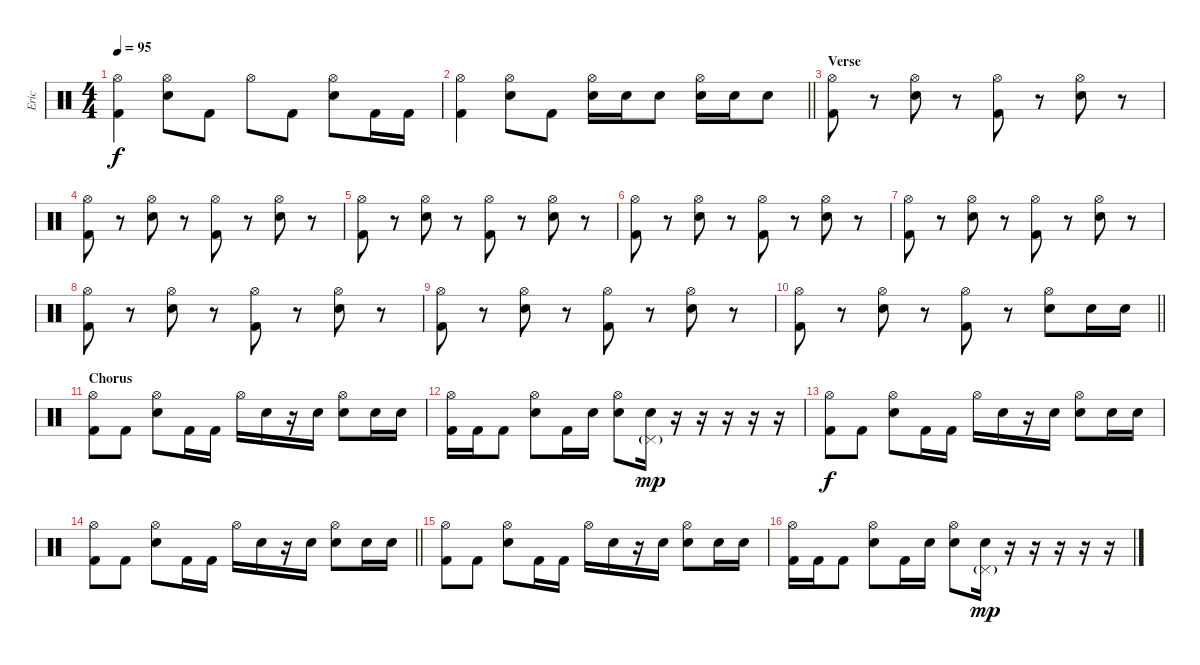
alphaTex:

\track ("Eric" "Eric") {instrument percussion}
\staff {score}
\articulation defaults
\ts (4 4)
\tempo 95
\clef neutral
\ks c
("Hi-Hat (open)" "Kick (hit) 2").4{dy f} ("Hi-Hat (open)" "Electric Snare (hit)").8 "Kick (hit) 2".8 "Hi-Hat (open)".8 "Kick (hit) 2".8 ("Hi-Hat (open)" "Electric Snare (hit)").8 "Kick (hit) 2".16 "Kick (hit) 2".16 |
\barLineRight lightlight
("Hi-Hat (open)" "Kick (hit) 2").4 ("Hi-Hat (open)" "Electric Snare (hit)").8 "Kick (hit) 2".8 ("Hi-Hat (open)" "Electric Snare (hit)").16 "Electric Snare (hit)".16 "Electric Snare (hit)".8 ("Hi-Hat (open)" "Electric Snare (hit)").16 "Electric Snare (hit)".16 "Electric Snare (hit)".8 |
\section ("" "Verse")
("Hi-Hat (open)" "Kick (hit) 2").8 r.8 ("Hi-Hat (open)" "Electric Snare (hit)").8 r.8 ("Hi-Hat (open)" "Kick (hit) 2").8 r.8 ("Hi-Hat (open)" "Electric Snare (hit)").8 r.8 |
("Hi-Hat (open)" "Kick (hit) 2").8 r.8 ("Hi-Hat (open)" "Electric Snare (hit)").8 r.8 ("Hi-Hat (open)" "Kick (hit) 2").8 r.8 ("Hi-Hat (open)" "Electric Snare (hit)").8 r.8 |
("Hi-Hat (open)" "Kick (hit) 2").8 r.8 ("Hi-Hat (open)" "Electric Snare (hit)").8 r.8 ("Hi-Hat (open)" "Kick (hit) 2").8 r.8 ("Hi-Hat (open)" "Electric Snare (hit)").8 r.8 |
("Hi-Hat (open)" "Kick (hit) 2").8 r.8 ("Hi-Hat (open)" "Electric Snare (hit)").8 r.8 ("Hi-Hat (open)" "Kick (hit) 2").8 r.8 ("Hi-Hat (open)" "Electric Snare (hit)").8 r.8 |
("Hi-Hat (open)" "Kick (hit) 2").8 r.8 ("Hi-Hat (open)" "Electric Snare (hit)").8 r.8 ("Hi-Hat (open)" "Kick (hit) 2").8 r.8 ("Hi-Hat (open)" "Electric Snare (hit)").8 r.8 |
("Hi-Hat (open)" "Kick (hit) 2").8 r.8 ("Hi-Hat (open)" "Electric Snare (hit)").8 r.8 ("Hi-Hat (open)" "Kick (hit) 2").8 r.8 ("Hi-Hat (open)" "Electric Snare (hit)").8 r.8 |
("Hi-Hat (open)" "Kick (hit) 2").8 r.8 ("Hi-Hat (open)" "Electric Snare (hit)").8 r.8 ("Hi-Hat (open)" "Kick (hit) 2").8 r.8 ("Hi-Hat (open)" "Electric Snare (hit)").8 r.8 |
\barLineRight lightlight
("Hi-Hat (open)" "Kick (hit) 2").8 r.8 ("Hi-Hat (open)" "Electric Snare (hit)").8 r.8 ("Hi-Hat (open)" "Kick (hit) 2").8 r.8 ("Hi-Hat (open)" "Electric Snare (hit)").8 "Electric Snare (hit)".16 "Electric Snare (hit)".16 |
\section ("" "Chorus")
("Hi-Hat (open)" "Kick (hit) 2").8 "Kick (hit) 2".8 ("Hi-Hat (open)" "Electric Snare (hit)").8 "Kick (hit) 2".16 "Kick (hit) 2".16 "Hi-Hat (open)".16 "Electric Snare (hit)".16 r.16 "Electric Snare (hit)".16 ("Hi-Hat (open)" "Electric Snare (hit)").8 "Electric Snare (hit)".16 "Electric Snare (hit)".16 |
("Hi-Hat (open)" "Kick (hit) 2").16 "Kick (hit) 2".16 "Kick (hit) 2".8 ("Hi-Hat (open)" "Electric Snare (hit)").8 "Kick (hit) 2".16 "Electric Snare (hit)".16 ("Hi-Hat (open)" "Electric Snare (hit)").8 ("Pedal Hi-Hat (hit)"{g} "Electric Snare (hit)").16{dy mp} r.16 r.16 r.16 r.16 r.16 |
("Hi-Hat (open)" "Kick (hit) 2").8{dy f} "Kick (hit) 2".8 ("Hi-Hat (open)" "Electric Snare (hit)").8 "Kick (hit) 2".16 "Kick (hit) 2".16 "Hi-Hat (open)".16 "Electric Snare (hit)".16 r.16 "Electric Snare (hit)".16 ("Hi-Hat (open)" "Electric Snare (hit)").8 "Electric Snare (hit)".16 "Electric Snare (hit)".16 |
\barLineRight lightlight
("Hi-Hat (open)" "Kick (hit) 2").8 "Kick (hit) 2".8 ("Hi-Hat (open)" "Electric Snare (hit)").8 "Kick (hit) 2".16 "Kick (hit) 2".16 "Hi-Hat (open)".16 "Electric Snare (hit)".16 r.16 "Electric Snare (hit)".16 ("Hi-Hat (open)" "Electric Snare (hit)").8 "Electric Snare (hit)".16 "Electric Snare (hit)".16 |
\section ("" "")
("Hi-Hat (open)" "Kick (hit) 2").8 "Kick (hit) 2".8 ("Hi-Hat (open)" "Electric Snare (hit)").8 "Kick (hit) 2".16 "Kick (hit) 2".16 "Hi-Hat (open)".16 "Electric Snare (hit)".16 r.16 "Electric Snare (hit)".16 ("Hi-Hat (open)" "Electric Snare (hit)").8 "Electric Snare (hit)".16 "Electric Snare (hit)".16 |
("Hi-Hat (open)" "Kick (hit) 2").16 "Kick (hit) 2".16 "Kick (hit) 2".8 ("Hi-Hat (open)" "Electric Snare (hit)").8 "Kick (hit) 2".16 "Electric Snare (hit)".16 ("Hi-Hat (open)" "Electric Snare (hit)").8 ("Pedal Hi-Hat (hit)"{g} "Electric Snare (hit)").16{dy mp} r.16 r.16 r.16 r.16 r.16
